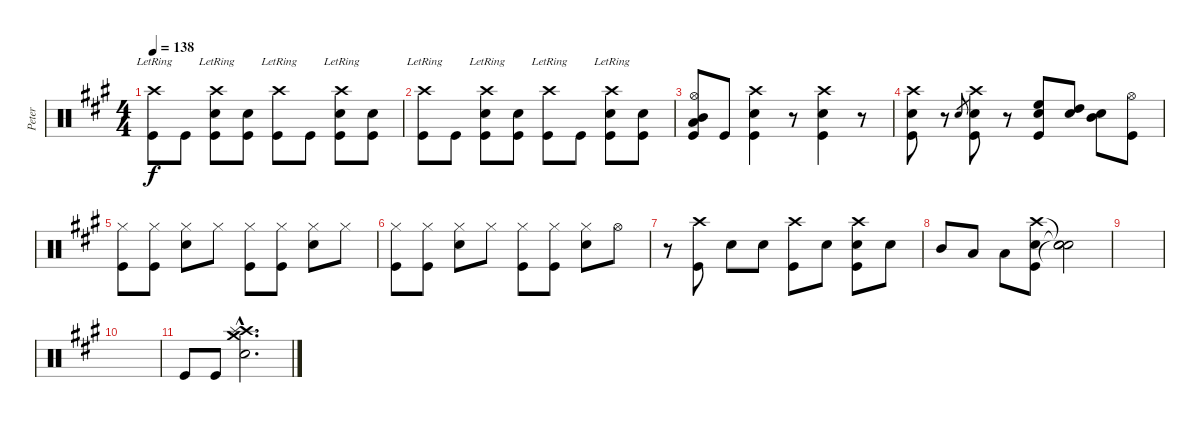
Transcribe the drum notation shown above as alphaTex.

\track ("Peter" "Peter") {instrument percussion}
\staff {score}
\articulation defaults
\ts (4 4)
\tempo 138
\clef neutral
\ks a
("Crash high (hit)"{lr} "Kick (hit)").8{dy f} "Kick (hit)".8 ("Crash high (hit)"{lr} "Snare (hit) 2" "Kick (hit)").8 ("Snare (hit) 2" "Kick (hit)").8 ("Crash high (hit)"{lr} "Kick (hit)").8 "Kick (hit)".8 ("Crash high (hit)"{lr} "Snare (hit) 2" "Kick (hit)").8 ("Snare (hit) 2" "Kick (hit)").8 |
("Crash high (hit)"{lr} "Kick (hit)").8 "Kick (hit)".8 ("Crash high (hit)"{lr} "Snare (hit) 2" "Kick (hit)").8 ("Snare (hit) 2" "Kick (hit)").8 ("Crash high (hit)"{lr} "Kick (hit)").8 "Kick (hit)".8 ("Crash high (hit)"{lr} "Snare (hit) 2" "Kick (hit)").8 ("Snare (hit) 2" "Kick (hit)").8 |
("Hi-Hat (open)" "Mid Tom (hit)" "Low Floor Tom (hit)" "Kick (hit)").8 "Kick (hit)".8 ("Crash high (hit)" "Snare (hit) 2" "Kick (hit)").4 r.8 ("Crash high (hit)" "Snare (hit) 2" "Kick (hit)").4 r.8 |
("Crash high (hit)" "Snare (hit) 2" "Kick (hit)").8 r.8 "Snare (hit) 2".8{gr} ("Crash high (hit)" "Snare (hit) 2" "Kick (hit)").8 r.8 ("High Floor Tom (hit)" "Snare (hit) 2" "Kick (hit)").8 ("High Tom (hit)" "Snare (hit) 2").8 ("Mid Tom (hit)" "Snare (hit) 2").8 ("Hi-Hat (open)" "Kick (hit)").8 |
("Hi-Hat (closed)" "Kick (hit)").8 ("Hi-Hat (closed)" "Kick (hit)").8 ("Hi-Hat (closed)" "Snare (hit) 2").8 "Hi-Hat (closed)".8 ("Hi-Hat (closed)" "Kick (hit)").8 ("Hi-Hat (closed)" "Kick (hit)").8 ("Hi-Hat (closed)" "Snare (hit) 2").8 "Hi-Hat (closed)".8 |
("Hi-Hat (closed)" "Kick (hit)").8 ("Hi-Hat (closed)" "Kick (hit)").8 ("Hi-Hat (closed)" "Snare (hit) 2").8 "Hi-Hat (closed)".8 ("Hi-Hat (closed)" "Kick (hit)").8 ("Hi-Hat (closed)" "Kick (hit)").8 ("Hi-Hat (closed)" "Snare (hit) 2").8 "Hi-Hat (open)".8 |
r.8 ("Crash high (hit)" "Kick (hit)").8 "Snare (hit) 2".8 "Snare (hit) 2".8 ("Crash high (hit)" "Kick (hit)").8 "Snare (hit) 2".8 ("Crash high (hit)" "Snare (hit) 2" "Kick (hit)").8 "Snare (hit) 2".8 |
"Mid Tom (hit)".8 "Low Tom (hit)".8 "Low Floor Tom (hit)".8 ("Crash high (hit)" "Snare (hit) 2" "Kick (hit)").8 ("Snare (hit)"{t} "Snare (hit)"{t} "Snare (hit)"{t}).2 |
|
|
"Kick (hit)".8 "Kick (hit)".8 ("Crash high (hit)"{hac} "Splash (hit)"{hac} "Crash medium (hit)"{hac} "Snare (hit) 2"{hac}).2{d}
